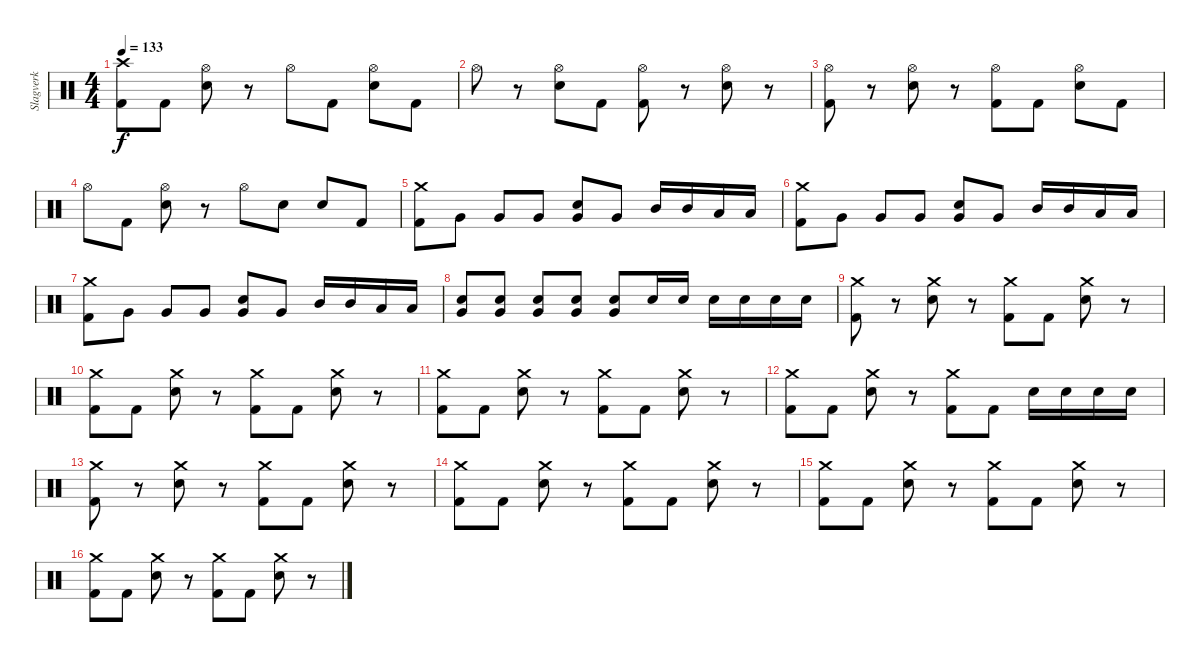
\track ("Slagverk" "Slagverk") {instrument percussion}
\staff {score}
\articulation defaults
\ts (4 4)
\tempo 133
\clef neutral
\ks c
("Crash high (hit)" "Kick (hit) 2").8{dy f} "Kick (hit) 2".8 ("Hi-Hat (open)" "Snare (hit) 2").8 r.8 "Hi-Hat (open)".8 "Kick (hit) 2".8 ("Hi-Hat (open)" "Snare (hit) 2").8 "Kick (hit) 2".8 |
"Hi-Hat (open)".8 r.8 ("Hi-Hat (open)" "Snare (hit) 2").8 "Kick (hit) 2".8 ("Hi-Hat (open)" "Kick (hit) 2").8 r.8 ("Hi-Hat (open)" "Snare (hit) 2").8 r.8 |
("Hi-Hat (open)" "Kick (hit) 2").8 r.8 ("Hi-Hat (open)" "Snare (hit) 2").8 r.8 ("Hi-Hat (open)" "Kick (hit) 2").8 "Kick (hit) 2".8 ("Hi-Hat (open)" "Snare (hit) 2").8 "Kick (hit) 2".8 |
"Hi-Hat (open)".8 "Kick (hit) 2".8 ("Hi-Hat (open)" "Snare (hit) 2").8 r.8 "Hi-Hat (open)".8 "Snare (hit) 2".8 "Snare (hit) 2".8 "Kick (hit) 2".8 |
("Crash medium (hit)" "Kick (hit) 2").8 "Very Low Tom (hit)".8 "Very Low Tom (hit)".8 "Very Low Tom (hit)".8 ("Very Low Tom (hit)" "Snare (hit) 2").8 "Very Low Tom (hit)".8 "Mid Tom (hit)".16 "Mid Tom (hit)".16 "Low Tom (hit)".16 "Low Tom (hit)".16 |
("Crash medium (hit)" "Kick (hit) 2").8 "Very Low Tom (hit)".8 "Very Low Tom (hit)".8 "Very Low Tom (hit)".8 ("Very Low Tom (hit)" "Snare (hit) 2").8 "Very Low Tom (hit)".8 "Mid Tom (hit)".16 "Mid Tom (hit)".16 "Low Tom (hit)".16 "Low Tom (hit)".16 |
("Crash medium (hit)" "Kick (hit) 2").8 "Very Low Tom (hit)".8 "Very Low Tom (hit)".8 "Very Low Tom (hit)".8 ("Very Low Tom (hit)" "Snare (hit) 2").8 "Very Low Tom (hit)".8 "Mid Tom (hit)".16 "Mid Tom (hit)".16 "Low Tom (hit)".16 "Low Tom (hit)".16 |
("Very Low Tom (hit)" "Snare (hit) 2").8 ("Very Low Tom (hit)" "Snare (hit) 2").8 ("Very Low Tom (hit)" "Snare (hit) 2").8 ("Very Low Tom (hit)" "Snare (hit) 2").8 ("Very Low Tom (hit)" "Snare (hit) 2").8 "Snare (hit) 2".16 "Snare (hit) 2".16 "Snare (hit) 2".16 "Snare (hit) 2".16 "Snare (hit) 2".16 "Snare (hit) 2".16 |
("Crash medium (hit)" "Kick (hit) 2").8 r.8 ("Crash medium (hit)" "Snare (hit) 2").8 r.8 ("Crash medium (hit)" "Kick (hit) 2").8 "Kick (hit) 2".8 ("Crash medium (hit)" "Snare (hit) 2").8 r.8 |
("Crash medium (hit)" "Kick (hit) 2").8 "Kick (hit) 2".8 ("Crash medium (hit)" "Snare (hit) 2").8 r.8 ("Crash medium (hit)" "Kick (hit) 2").8 "Kick (hit) 2".8 ("Crash medium (hit)" "Snare (hit) 2").8 r.8 |
("Crash medium (hit)" "Kick (hit) 2").8 "Kick (hit) 2".8 ("Crash medium (hit)" "Snare (hit) 2").8 r.8 ("Crash medium (hit)" "Kick (hit) 2").8 "Kick (hit) 2".8 ("Crash medium (hit)" "Snare (hit) 2").8 r.8 |
("Crash medium (hit)" "Kick (hit) 2").8 "Kick (hit) 2".8 ("Crash medium (hit)" "Snare (hit) 2").8 r.8 ("Crash medium (hit)" "Kick (hit) 2").8 "Kick (hit) 2".8 "Snare (hit) 2".16 "Snare (hit) 2".16 "Snare (hit) 2".16 "Snare (hit) 2".16 |
("Crash medium (hit)" "Kick (hit) 2").8 r.8 ("Crash medium (hit)" "Snare (hit) 2").8 r.8 ("Crash medium (hit)" "Kick (hit) 2").8 "Kick (hit) 2".8 ("Crash medium (hit)" "Snare (hit) 2").8 r.8 |
("Crash medium (hit)" "Kick (hit) 2").8 "Kick (hit) 2".8 ("Crash medium (hit)" "Snare (hit) 2").8 r.8 ("Crash medium (hit)" "Kick (hit) 2").8 "Kick (hit) 2".8 ("Crash medium (hit)" "Snare (hit) 2").8 r.8 |
("Crash medium (hit)" "Kick (hit) 2").8 "Kick (hit) 2".8 ("Crash medium (hit)" "Snare (hit) 2").8 r.8 ("Crash medium (hit)" "Kick (hit) 2").8 "Kick (hit) 2".8 ("Crash medium (hit)" "Snare (hit) 2").8 r.8 |
("Crash medium (hit)" "Kick (hit) 2").8 "Kick (hit) 2".8 ("Crash medium (hit)" "Snare (hit) 2").8 r.8 ("Crash medium (hit)" "Kick (hit) 2").8 "Kick (hit) 2".8 ("Crash medium (hit)" "Snare (hit) 2").8 r.8
